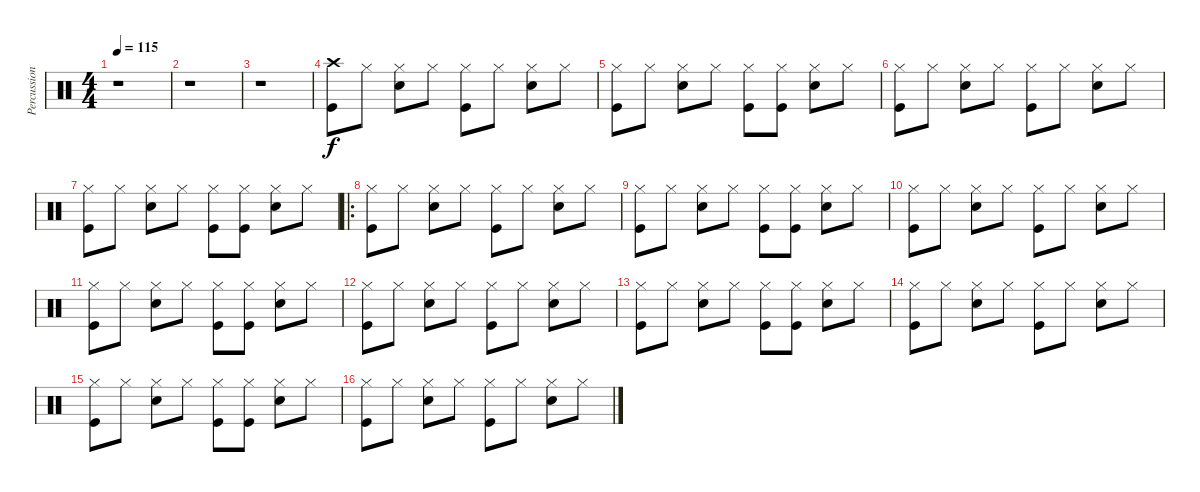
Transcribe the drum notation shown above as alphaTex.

\track ("Percussion" "Percussion") {instrument percussion}
\staff {score}
\articulation defaults
\ts (4 4)
\tempo 115
\clef neutral
\ks c
r.1{dy f} |
r.1 |
r.1 |
("Crash high (hit)" "Kick (hit)").8 "Hi-Hat (closed)".8 ("Hi-Hat (closed)" "Snare (hit) 2").8 "Hi-Hat (closed)".8 ("Hi-Hat (closed)" "Kick (hit)").8 "Hi-Hat (closed)".8 ("Hi-Hat (closed)" "Snare (hit) 2").8 "Hi-Hat (closed)".8 |
("Hi-Hat (closed)" "Kick (hit)").8 "Hi-Hat (closed)".8 ("Hi-Hat (closed)" "Snare (hit) 2").8 "Hi-Hat (closed)".8 ("Hi-Hat (closed)" "Kick (hit)").8 ("Hi-Hat (closed)" "Kick (hit)").8 ("Hi-Hat (closed)" "Snare (hit) 2").8 "Hi-Hat (closed)".8 |
("Hi-Hat (closed)" "Kick (hit)").8 "Hi-Hat (closed)".8 ("Hi-Hat (closed)" "Snare (hit) 2").8 "Hi-Hat (closed)".8 ("Hi-Hat (closed)" "Kick (hit)").8 "Hi-Hat (closed)".8 ("Hi-Hat (closed)" "Snare (hit) 2").8 "Hi-Hat (closed)".8 |
("Hi-Hat (closed)" "Kick (hit)").8 "Hi-Hat (closed)".8 ("Hi-Hat (closed)" "Snare (hit) 2").8 "Hi-Hat (closed)".8 ("Hi-Hat (closed)" "Kick (hit)").8 ("Hi-Hat (closed)" "Kick (hit)").8 ("Hi-Hat (closed)" "Snare (hit) 2").8 "Hi-Hat (closed)".8 |
\ro
("Hi-Hat (closed)" "Kick (hit)").8 "Hi-Hat (closed)".8 ("Hi-Hat (closed)" "Snare (hit) 2").8 "Hi-Hat (closed)".8 ("Hi-Hat (closed)" "Kick (hit)").8 "Hi-Hat (closed)".8 ("Hi-Hat (closed)" "Snare (hit) 2").8 "Hi-Hat (closed)".8 |
("Hi-Hat (closed)" "Kick (hit)").8 "Hi-Hat (closed)".8 ("Hi-Hat (closed)" "Snare (hit) 2").8 "Hi-Hat (closed)".8 ("Hi-Hat (closed)" "Kick (hit)").8 ("Hi-Hat (closed)" "Kick (hit)").8 ("Hi-Hat (closed)" "Snare (hit) 2").8 "Hi-Hat (closed)".8 |
("Hi-Hat (closed)" "Kick (hit)").8 "Hi-Hat (closed)".8 ("Hi-Hat (closed)" "Snare (hit) 2").8 "Hi-Hat (closed)".8 ("Hi-Hat (closed)" "Kick (hit)").8 "Hi-Hat (closed)".8 ("Hi-Hat (closed)" "Snare (hit) 2").8 "Hi-Hat (closed)".8 |
("Hi-Hat (closed)" "Kick (hit)").8 "Hi-Hat (closed)".8 ("Hi-Hat (closed)" "Snare (hit) 2").8 "Hi-Hat (closed)".8 ("Hi-Hat (closed)" "Kick (hit)").8 ("Hi-Hat (closed)" "Kick (hit)").8 ("Hi-Hat (closed)" "Snare (hit) 2").8 "Hi-Hat (closed)".8 |
("Hi-Hat (closed)" "Kick (hit)").8 "Hi-Hat (closed)".8 ("Hi-Hat (closed)" "Snare (hit) 2").8 "Hi-Hat (closed)".8 ("Hi-Hat (closed)" "Kick (hit)").8 "Hi-Hat (closed)".8 ("Hi-Hat (closed)" "Snare (hit) 2").8 "Hi-Hat (closed)".8 |
("Hi-Hat (closed)" "Kick (hit)").8 "Hi-Hat (closed)".8 ("Hi-Hat (closed)" "Snare (hit) 2").8 "Hi-Hat (closed)".8 ("Hi-Hat (closed)" "Kick (hit)").8 ("Hi-Hat (closed)" "Kick (hit)").8 ("Hi-Hat (closed)" "Snare (hit) 2").8 "Hi-Hat (closed)".8 |
("Hi-Hat (closed)" "Kick (hit)").8 "Hi-Hat (closed)".8 ("Hi-Hat (closed)" "Snare (hit) 2").8 "Hi-Hat (closed)".8 ("Hi-Hat (closed)" "Kick (hit)").8 "Hi-Hat (closed)".8 ("Hi-Hat (closed)" "Snare (hit) 2").8 "Hi-Hat (closed)".8 |
("Hi-Hat (closed)" "Kick (hit)").8 "Hi-Hat (closed)".8 ("Hi-Hat (closed)" "Snare (hit) 2").8 "Hi-Hat (closed)".8 ("Hi-Hat (closed)" "Kick (hit)").8 ("Hi-Hat (closed)" "Kick (hit)").8 ("Hi-Hat (closed)" "Snare (hit) 2").8 "Hi-Hat (closed)".8 |
("Hi-Hat (closed)" "Kick (hit)").8 "Hi-Hat (closed)".8 ("Hi-Hat (closed)" "Snare (hit) 2").8 "Hi-Hat (closed)".8 ("Hi-Hat (closed)" "Kick (hit)").8 "Hi-Hat (closed)".8 ("Hi-Hat (closed)" "Snare (hit) 2").8 "Hi-Hat (closed)".8
